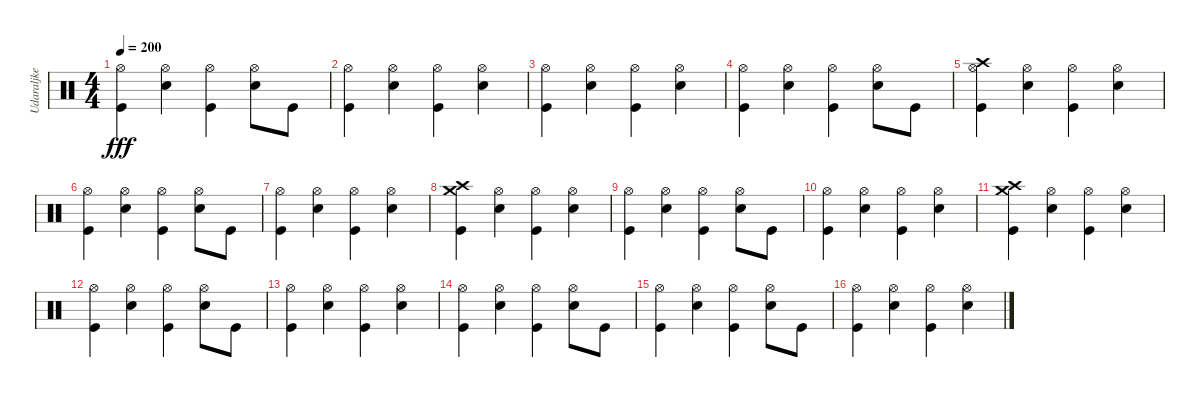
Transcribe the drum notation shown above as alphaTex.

\track ("Udaraljke" "Udaraljke") {instrument percussion}
\staff {score}
\articulation defaults
\ts (4 4)
\tempo 200
\clef neutral
\ks c
("Hi-Hat (open)" "Kick (hit)").4{dy fff} ("Hi-Hat (open)" "Electric Snare (hit)").4 ("Hi-Hat (open)" "Kick (hit)").4 ("Hi-Hat (open)" "Electric Snare (hit)").8 "Kick (hit)".8 |
("Hi-Hat (open)" "Kick (hit)").4 ("Hi-Hat (open)" "Electric Snare (hit)").4 ("Hi-Hat (open)" "Kick (hit)").4 ("Hi-Hat (open)" "Electric Snare (hit)").4 |
("Hi-Hat (open)" "Kick (hit)").4 ("Hi-Hat (open)" "Electric Snare (hit)").4 ("Hi-Hat (open)" "Kick (hit)").4 ("Hi-Hat (open)" "Electric Snare (hit)").4 |
("Hi-Hat (open)" "Kick (hit)").4 ("Hi-Hat (open)" "Electric Snare (hit)").4 ("Hi-Hat (open)" "Kick (hit)").4 ("Hi-Hat (open)" "Electric Snare (hit)").8 "Kick (hit)".8 |
("Crash high (hit)" "Hi-Hat (open)" "Kick (hit)").4 ("Hi-Hat (open)" "Electric Snare (hit)").4 ("Hi-Hat (open)" "Kick (hit)").4 ("Hi-Hat (open)" "Electric Snare (hit)").4 |
("Hi-Hat (open)" "Kick (hit)").4 ("Hi-Hat (open)" "Electric Snare (hit)").4 ("Hi-Hat (open)" "Kick (hit)").4 ("Hi-Hat (open)" "Electric Snare (hit)").8 "Kick (hit)".8 |
("Hi-Hat (open)" "Kick (hit)").4 ("Hi-Hat (open)" "Electric Snare (hit)").4 ("Hi-Hat (open)" "Kick (hit)").4 ("Hi-Hat (open)" "Electric Snare (hit)").4 |
("Crash high (hit)" "Crash medium (hit)" "Kick (hit)").4 ("Hi-Hat (open)" "Electric Snare (hit)").4 ("Hi-Hat (open)" "Kick (hit)").4 ("Hi-Hat (open)" "Electric Snare (hit)").4 |
("Hi-Hat (open)" "Kick (hit)").4 ("Hi-Hat (open)" "Electric Snare (hit)").4 ("Hi-Hat (open)" "Kick (hit)").4 ("Hi-Hat (open)" "Electric Snare (hit)").8 "Kick (hit)".8 |
("Hi-Hat (open)" "Kick (hit)").4 ("Hi-Hat (open)" "Electric Snare (hit)").4 ("Hi-Hat (open)" "Kick (hit)").4 ("Hi-Hat (open)" "Electric Snare (hit)").4 |
("Crash high (hit)" "Crash medium (hit)" "Kick (hit)").4 ("Hi-Hat (open)" "Electric Snare (hit)").4 ("Hi-Hat (open)" "Kick (hit)").4 ("Hi-Hat (open)" "Electric Snare (hit)").4 |
("Hi-Hat (open)" "Kick (hit)").4 ("Hi-Hat (open)" "Electric Snare (hit)").4 ("Hi-Hat (open)" "Kick (hit)").4 ("Hi-Hat (open)" "Electric Snare (hit)").8 "Kick (hit)".8 |
("Hi-Hat (open)" "Kick (hit)").4 ("Hi-Hat (open)" "Electric Snare (hit)").4 ("Hi-Hat (open)" "Kick (hit)").4 ("Hi-Hat (open)" "Electric Snare (hit)").4 |
("Hi-Hat (open)" "Kick (hit)").4 ("Hi-Hat (open)" "Electric Snare (hit)").4 ("Hi-Hat (open)" "Kick (hit)").4 ("Hi-Hat (open)" "Electric Snare (hit)").8 "Kick (hit)".8 |
("Hi-Hat (open)" "Kick (hit)").4 ("Hi-Hat (open)" "Electric Snare (hit)").4 ("Hi-Hat (open)" "Kick (hit)").4 ("Hi-Hat (open)" "Electric Snare (hit)").8 "Kick (hit)".8 |
("Hi-Hat (open)" "Kick (hit)").4 ("Hi-Hat (open)" "Electric Snare (hit)").4 ("Hi-Hat (open)" "Kick (hit)").4 ("Hi-Hat (open)" "Electric Snare (hit)").4
